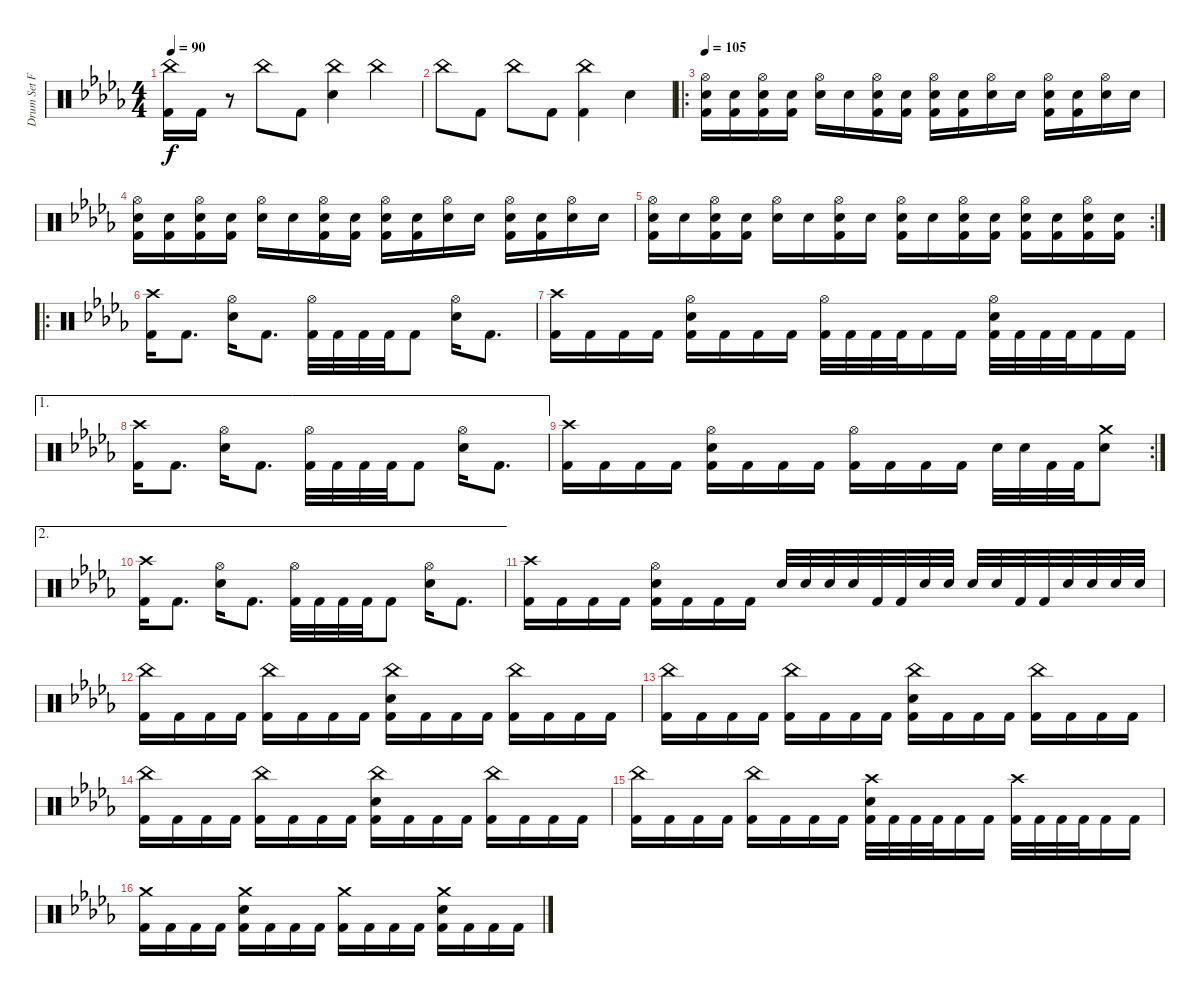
\track ("Drum Set Franz Brachmann" "Drum Set F") {instrument percussion}
\staff {score}
\articulation defaults
\ts (4 4)
\tempo 90
\clef neutral
\ks bbminor
("China (hit)" "Kick (hit) 2").16{dy f} "Kick (hit) 2".16 r.8 "China (hit)".8 "Kick (hit) 2".8 ("China (hit)" "Electric Snare (hit)").4 "China (hit)".4 |
"China (hit)".8 "Kick (hit) 2".8 "China (hit)".8 "Kick (hit) 2".8 ("China (hit)" "Kick (hit) 2").4 "Metronome (bell)".4 |
\ro
\tempo 105
("Hi-Hat (open)" "Electric Snare (hit)" "Kick (hit) 2").16 ("Electric Snare (hit)" "Kick (hit) 2").16 ("Hi-Hat (open)" "Electric Snare (hit)" "Kick (hit) 2").16 ("Electric Snare (hit)" "Kick (hit) 2").16 ("Hi-Hat (open)" "Electric Snare (hit)").16 "Electric Snare (hit)".16 ("Hi-Hat (open)" "Electric Snare (hit)" "Kick (hit) 2").16 ("Electric Snare (hit)" "Kick (hit) 2").16 ("Hi-Hat (open)" "Electric Snare (hit)" "Kick (hit) 2").16 ("Electric Snare (hit)" "Kick (hit) 2").16 ("Hi-Hat (open)" "Electric Snare (hit)").16 "Electric Snare (hit)".16 ("Hi-Hat (open)" "Electric Snare (hit)" "Kick (hit) 2").16 ("Electric Snare (hit)" "Kick (hit) 2").16 ("Hi-Hat (open)" "Electric Snare (hit)").16 "Electric Snare (hit)".16 |
("Hi-Hat (open)" "Electric Snare (hit)" "Kick (hit) 2").16 ("Electric Snare (hit)" "Kick (hit) 2").16 ("Hi-Hat (open)" "Electric Snare (hit)" "Kick (hit) 2").16 ("Electric Snare (hit)" "Kick (hit) 2").16 ("Hi-Hat (open)" "Electric Snare (hit)").16 "Electric Snare (hit)".16 ("Hi-Hat (open)" "Electric Snare (hit)" "Kick (hit) 2").16 ("Electric Snare (hit)" "Kick (hit) 2").16 ("Hi-Hat (open)" "Electric Snare (hit)" "Kick (hit) 2").16 ("Electric Snare (hit)" "Kick (hit) 2").16 ("Hi-Hat (open)" "Electric Snare (hit)").16 "Electric Snare (hit)".16 ("Hi-Hat (open)" "Electric Snare (hit)" "Kick (hit) 2").16 ("Electric Snare (hit)" "Kick (hit) 2").16 ("Hi-Hat (open)" "Electric Snare (hit)").16 "Electric Snare (hit)".16 |
\rc 2
("Hi-Hat (open)" "Electric Snare (hit)" "Kick (hit) 2").16 "Electric Snare (hit)".16 ("Hi-Hat (open)" "Electric Snare (hit)" "Kick (hit) 2").16 ("Electric Snare (hit)" "Kick (hit) 2").16 ("Hi-Hat (open)" "Electric Snare (hit)").16 "Electric Snare (hit)".16 ("Hi-Hat (open)" "Electric Snare (hit)" "Kick (hit) 2").16 "Electric Snare (hit)".16 ("Hi-Hat (open)" "Electric Snare (hit)" "Kick (hit) 2").16 "Electric Snare (hit)".16 ("Hi-Hat (open)" "Electric Snare (hit)" "Kick (hit) 2").16 ("Electric Snare (hit)" "Kick (hit) 2").16 ("Hi-Hat (open)" "Electric Snare (hit)" "Kick (hit) 2").16 ("Electric Snare (hit)" "Kick (hit) 2").16 ("Hi-Hat (open)" "Electric Snare (hit)" "Kick (hit) 2").16 ("Electric Snare (hit)" "Kick (hit) 2").16 |
\ro
("Crash high (hit)" "Kick (hit) 2").16 "Kick (hit) 2".8{d} ("Hi-Hat (open)" "Electric Snare (hit)").16 "Kick (hit) 2".8{d} ("Hi-Hat (open)" "Kick (hit) 2").32 "Kick (hit) 2".32 "Kick (hit) 2".32 "Kick (hit) 2".32 "Kick (hit) 2".8 ("Hi-Hat (open)" "Electric Snare (hit)").16 "Kick (hit) 2".8{d} |
("Crash high (hit)" "Kick (hit) 2").16 "Kick (hit) 2".16 "Kick (hit) 2".16 "Kick (hit) 2".16 ("Hi-Hat (open)" "Electric Snare (hit)" "Kick (hit) 2").16 "Kick (hit) 2".16 "Kick (hit) 2".16 "Kick (hit) 2".16 ("Hi-Hat (open)" "Kick (hit) 2").32 "Kick (hit) 2".32 "Kick (hit) 2".32 "Kick (hit) 2".32 "Kick (hit) 2".16 "Kick (hit) 2".16 ("Hi-Hat (open)" "Electric Snare (hit)" "Kick (hit) 2").32 "Kick (hit) 2".32 "Kick (hit) 2".32 "Kick (hit) 2".32 "Kick (hit) 2".16 "Kick (hit) 2".16 |
\ae 1
("Crash high (hit)" "Kick (hit) 2").16 "Kick (hit) 2".8{d} ("Hi-Hat (open)" "Electric Snare (hit)").16 "Kick (hit) 2".8{d} ("Hi-Hat (open)" "Kick (hit) 2").32 "Kick (hit) 2".32 "Kick (hit) 2".32 "Kick (hit) 2".32 "Kick (hit) 2".8 ("Hi-Hat (open)" "Electric Snare (hit)").16 "Kick (hit) 2".8{d} |
\rc 2
("Crash high (hit)" "Kick (hit) 2").16 "Kick (hit) 2".16 "Kick (hit) 2".16 "Kick (hit) 2".16 ("Hi-Hat (open)" "Electric Snare (hit)" "Kick (hit) 2").16 "Kick (hit) 2".16 "Kick (hit) 2".16 "Kick (hit) 2".16 ("Hi-Hat (open)" "Kick (hit) 2").16 "Kick (hit) 2".16 "Kick (hit) 2".16 "Kick (hit) 2".16 "Electric Snare (hit)".32 "Electric Snare (hit)".32 "Kick (hit) 2".32 "Kick (hit) 2".32 ("Crash medium (hit)" "Electric Snare (hit)").8 |
\ae 2
("Crash high (hit)" "Kick (hit) 2").16 "Kick (hit) 2".8{d} ("Hi-Hat (open)" "Electric Snare (hit)").16 "Kick (hit) 2".8{d} ("Hi-Hat (open)" "Kick (hit) 2").32 "Kick (hit) 2".32 "Kick (hit) 2".32 "Kick (hit) 2".32 "Kick (hit) 2".8 ("Hi-Hat (open)" "Electric Snare (hit)").16 "Kick (hit) 2".8{d} |
("Crash high (hit)" "Kick (hit) 2").16 "Kick (hit) 2".16 "Kick (hit) 2".16 "Kick (hit) 2".16 ("Hi-Hat (open)" "Electric Snare (hit)" "Kick (hit) 2").16 "Kick (hit) 2".16 "Kick (hit) 2".16 "Kick (hit) 2".16 "Electric Snare (hit)".32 "Electric Snare (hit)".32 "Electric Snare (hit)".32 "Electric Snare (hit)".32 "Kick (hit) 2".32 "Kick (hit) 2".32 "Electric Snare (hit)".32 "Electric Snare (hit)".32 "Electric Snare (hit)".32 "Electric Snare (hit)".32 "Kick (hit) 2".32 "Kick (hit) 2".32 "Electric Snare (hit)".32 "Electric Snare (hit)".32 "Electric Snare (hit)".32 "Electric Snare (hit)".32 |
("China (hit)" "Kick (hit) 2").16 "Kick (hit) 2".16 "Kick (hit) 2".16 "Kick (hit) 2".16 ("China (hit)" "Kick (hit) 2").16 "Kick (hit) 2".16 "Kick (hit) 2".16 "Kick (hit) 2".16 ("China (hit)" "Electric Snare (hit)" "Kick (hit) 2").16 "Kick (hit) 2".16 "Kick (hit) 2".16 "Kick (hit) 2".16 ("China (hit)" "Kick (hit) 2").16 "Kick (hit) 2".16 "Kick (hit) 2".16 "Kick (hit) 2".16 |
("China (hit)" "Kick (hit) 2").16 "Kick (hit) 2".16 "Kick (hit) 2".16 "Kick (hit) 2".16 ("China (hit)" "Kick (hit) 2").16 "Kick (hit) 2".16 "Kick (hit) 2".16 "Kick (hit) 2".16 ("China (hit)" "Electric Snare (hit)" "Kick (hit) 2").16 "Kick (hit) 2".16 "Kick (hit) 2".16 "Kick (hit) 2".16 ("China (hit)" "Kick (hit) 2").16 "Kick (hit) 2".16 "Kick (hit) 2".16 "Kick (hit) 2".16 |
("China (hit)" "Kick (hit) 2").16 "Kick (hit) 2".16 "Kick (hit) 2".16 "Kick (hit) 2".16 ("China (hit)" "Kick (hit) 2").16 "Kick (hit) 2".16 "Kick (hit) 2".16 "Kick (hit) 2".16 ("China (hit)" "Electric Snare (hit)" "Kick (hit) 2").16 "Kick (hit) 2".16 "Kick (hit) 2".16 "Kick (hit) 2".16 ("China (hit)" "Kick (hit) 2").16 "Kick (hit) 2".16 "Kick (hit) 2".16 "Kick (hit) 2".16 |
("China (hit)" "Kick (hit) 2").16 "Kick (hit) 2".16 "Kick (hit) 2".16 "Kick (hit) 2".16 ("China (hit)" "Kick (hit) 2").16 "Kick (hit) 2".16 "Kick (hit) 2".16 "Kick (hit) 2".16 ("Crash high (hit)" "Electric Snare (hit)" "Kick (hit) 2").32 "Kick (hit) 2".32 "Kick (hit) 2".32 "Kick (hit) 2".32 "Kick (hit) 2".16 "Kick (hit) 2".16 ("Crash high (hit)" "Kick (hit) 2").32 "Kick (hit) 2".32 "Kick (hit) 2".32 "Kick (hit) 2".32 "Kick (hit) 2".16 "Kick (hit) 2".16 |
("Crash medium (hit)" "Kick (hit) 2").16 "Kick (hit) 2".16 "Kick (hit) 2".16 "Kick (hit) 2".16 ("Crash medium (hit)" "Electric Snare (hit)" "Kick (hit) 2").16 "Kick (hit) 2".16 "Kick (hit) 2".16 "Kick (hit) 2".16 ("Crash medium (hit)" "Kick (hit) 2").16 "Kick (hit) 2".16 "Kick (hit) 2".16 "Kick (hit) 2".16 ("Crash medium (hit)" "Electric Snare (hit)" "Kick (hit) 2").16 "Kick (hit) 2".16 "Kick (hit) 2".16 "Kick (hit) 2".16
